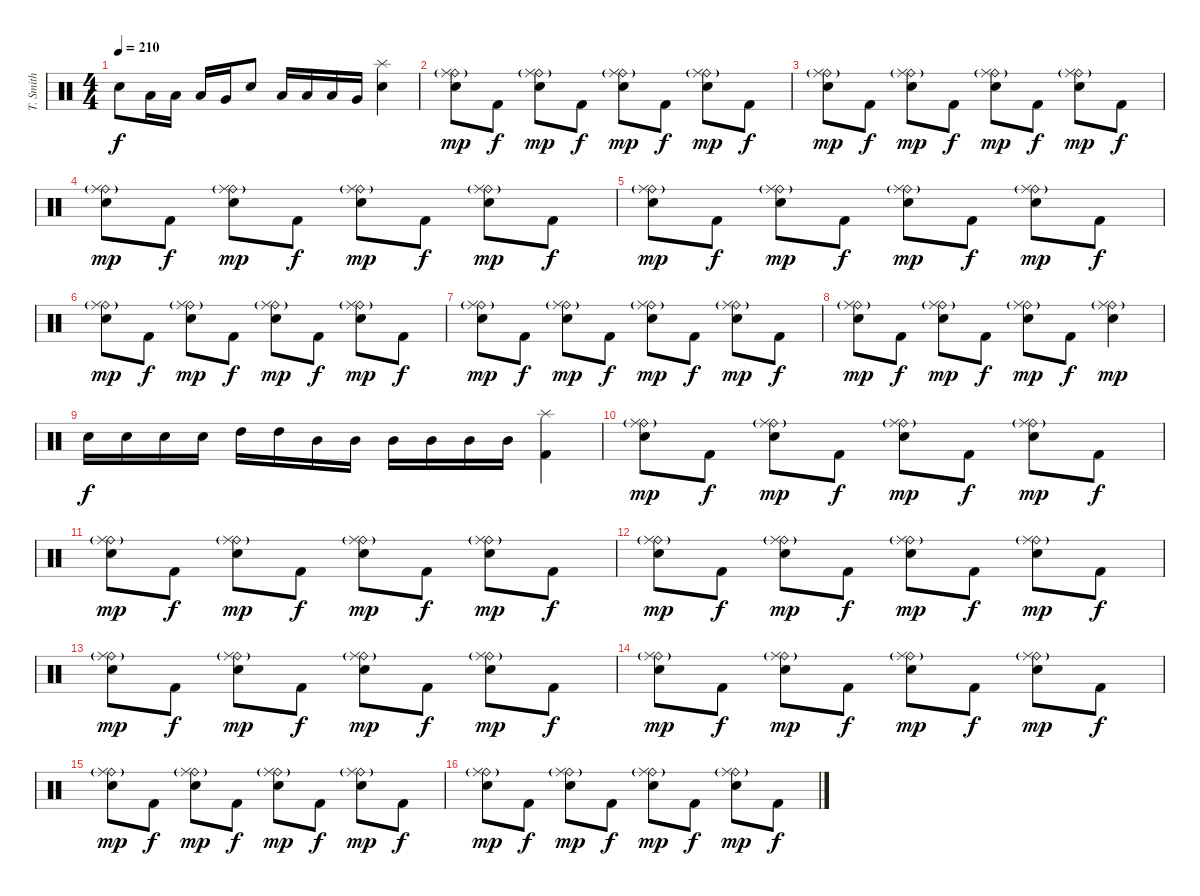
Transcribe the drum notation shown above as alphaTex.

\track ("T. Smith" "T. Smith") {instrument percussion}
\staff {score}
\articulation defaults
\ts (4 4)
\tempo 210
\clef neutral
\ks c "Electric Snare (hit)".8{dy f} "Low Tom (hit)".16 "Low Tom (hit)".16 "Low Tom (hit)".16 "Very Low Tom (hit)".16 "Electric Snare (hit)".8 "Low Tom (hit)".16 "Low Tom (hit)".16 "Low Tom (hit)".16 "Very Low Tom (hit)".16
("Splash (hit)" "Electric Snare (hit)").4 |
("Ride (bell)" "Ride (middle)"{g} "Electric Snare (hit)").8{dy mp} "Kick (hit) 2".8{dy f} ("Ride (bell)" "Ride (middle)"{g} "Electric Snare (hit)").8{dy mp} "Kick (hit) 2".8{dy f} ("Ride (bell)" "Ride (middle)"{g} "Electric Snare (hit)").8{dy mp} "Kick (hit) 2".8{dy f} ("Ride (bell)" "Ride (middle)"{g} "Electric Snare (hit)").8{dy mp} "Kick (hit) 2".8{dy f} |
("Ride (bell)" "Ride (middle)"{g} "Electric Snare (hit)").8{dy mp} "Kick (hit) 2".8{dy f} ("Ride (bell)" "Ride (middle)"{g} "Electric Snare (hit)").8{dy mp} "Kick (hit) 2".8{dy f} ("Ride (bell)" "Ride (middle)"{g} "Electric Snare (hit)").8{dy mp} "Kick (hit) 2".8{dy f} ("Ride (bell)" "Ride (middle)"{g} "Electric Snare (hit)").8{dy mp} "Kick (hit) 2".8{dy f} |
("Ride (bell)" "Ride (middle)"{g} "Electric Snare (hit)").8{dy mp} "Kick (hit) 2".8{dy f} ("Ride (bell)" "Ride (middle)"{g} "Electric Snare (hit)").8{dy mp} "Kick (hit) 2".8{dy f} ("Ride (bell)" "Ride (middle)"{g} "Electric Snare (hit)").8{dy mp} "Kick (hit) 2".8{dy f} ("Ride (bell)" "Ride (middle)"{g} "Electric Snare (hit)").8{dy mp} "Kick (hit) 2".8{dy f} |
("Ride (bell)" "Ride (middle)"{g} "Electric Snare (hit)").8{dy mp} "Kick (hit) 2".8{dy f} ("Ride (bell)" "Ride (middle)"{g} "Electric Snare (hit)").8{dy mp} "Kick (hit) 2".8{dy f} ("Ride (bell)" "Ride (middle)"{g} "Electric Snare (hit)").8{dy mp} "Kick (hit) 2".8{dy f} ("Ride (bell)" "Ride (middle)"{g} "Electric Snare (hit)").8{dy mp} "Kick (hit) 2".8{dy f} |
("Ride (bell)" "Ride (middle)"{g} "Electric Snare (hit)").8{dy mp} "Kick (hit) 2".8{dy f} ("Ride (bell)" "Ride (middle)"{g} "Electric Snare (hit)").8{dy mp} "Kick (hit) 2".8{dy f} ("Ride (bell)" "Ride (middle)"{g} "Electric Snare (hit)").8{dy mp} "Kick (hit) 2".8{dy f} ("Ride (bell)" "Ride (middle)"{g} "Electric Snare (hit)").8{dy mp} "Kick (hit) 2".8{dy f} |
("Ride (bell)" "Ride (middle)"{g} "Electric Snare (hit)").8{dy mp} "Kick (hit) 2".8{dy f} ("Ride (bell)" "Ride (middle)"{g} "Electric Snare (hit)").8{dy mp} "Kick (hit) 2".8{dy f} ("Ride (bell)" "Ride (middle)"{g} "Electric Snare (hit)").8{dy mp} "Kick (hit) 2".8{dy f} ("Ride (bell)" "Ride (middle)"{g} "Electric Snare (hit)").8{dy mp} "Kick (hit) 2".8{dy f} |
("Ride (bell)" "Ride (middle)"{g} "Electric Snare (hit)").8{dy mp} "Kick (hit) 2".8{dy f} ("Ride (bell)" "Ride (middle)"{g} "Electric Snare (hit)").8{dy mp} "Kick (hit) 2".8{dy f} ("Ride (bell)" "Ride (middle)"{g} "Electric Snare (hit)").8{dy mp} "Kick (hit) 2".8{dy f} ("Ride (bell)" "Ride (middle)"{g} "Electric Snare (hit)").4{dy mp} |
"Electric Snare (hit)".16{dy f} "Electric Snare (hit)".16 "Electric Snare (hit)".16 "Electric Snare (hit)".16 "High Tom (hit)".16 "High Tom (hit)".16 "Mid Tom (hit)".16 "Mid Tom (hit)".16 "Mid Tom (hit)".16 "Mid Tom (hit)".16 "Mid Tom (hit)".16 "Mid Tom (hit)".16 ("Splash (hit)" "Kick (hit) 2").4 |
("Ride (bell)" "Ride (middle)"{g} "Electric Snare (hit)").8{dy mp} "Kick (hit) 2".8{dy f} ("Ride (bell)" "Ride (middle)"{g} "Electric Snare (hit)").8{dy mp} "Kick (hit) 2".8{dy f} ("Ride (bell)" "Ride (middle)"{g} "Electric Snare (hit)").8{dy mp} "Kick (hit) 2".8{dy f} ("Ride (bell)" "Ride (middle)"{g} "Electric Snare (hit)").8{dy mp} "Kick (hit) 2".8{dy f} |
("Ride (bell)" "Ride (middle)"{g} "Electric Snare (hit)").8{dy mp} "Kick (hit) 2".8{dy f} ("Ride (bell)" "Ride (middle)"{g} "Electric Snare (hit)").8{dy mp} "Kick (hit) 2".8{dy f} ("Ride (bell)" "Ride (middle)"{g} "Electric Snare (hit)").8{dy mp} "Kick (hit) 2".8{dy f} ("Ride (bell)" "Ride (middle)"{g} "Electric Snare (hit)").8{dy mp} "Kick (hit) 2".8{dy f} |
("Ride (bell)" "Ride (middle)"{g} "Electric Snare (hit)").8{dy mp} "Kick (hit) 2".8{dy f} ("Ride (bell)" "Ride (middle)"{g} "Electric Snare (hit)").8{dy mp} "Kick (hit) 2".8{dy f} ("Ride (bell)" "Ride (middle)"{g} "Electric Snare (hit)").8{dy mp} "Kick (hit) 2".8{dy f} ("Ride (bell)" "Ride (middle)"{g} "Electric Snare (hit)").8{dy mp} "Kick (hit) 2".8{dy f} |
("Ride (bell)" "Ride (middle)"{g} "Electric Snare (hit)").8{dy mp} "Kick (hit) 2".8{dy f} ("Ride (bell)" "Ride (middle)"{g} "Electric Snare (hit)").8{dy mp} "Kick (hit) 2".8{dy f} ("Ride (bell)" "Ride (middle)"{g} "Electric Snare (hit)").8{dy mp} "Kick (hit) 2".8{dy f} ("Ride (bell)" "Ride (middle)"{g} "Electric Snare (hit)").8{dy mp} "Kick (hit) 2".8{dy f} |
("Ride (bell)" "Ride (middle)"{g} "Electric Snare (hit)").8{dy mp} "Kick (hit) 2".8{dy f} ("Ride (bell)" "Ride (middle)"{g} "Electric Snare (hit)").8{dy mp} "Kick (hit) 2".8{dy f} ("Ride (bell)" "Ride (middle)"{g} "Electric Snare (hit)").8{dy mp} "Kick (hit) 2".8{dy f} ("Ride (bell)" "Ride (middle)"{g} "Electric Snare (hit)").8{dy mp} "Kick (hit) 2".8{dy f} |
("Ride (bell)" "Ride (middle)"{g} "Electric Snare (hit)").8{dy mp} "Kick (hit) 2".8{dy f} ("Ride (bell)" "Ride (middle)"{g} "Electric Snare (hit)").8{dy mp} "Kick (hit) 2".8{dy f} ("Ride (bell)" "Ride (middle)"{g} "Electric Snare (hit)").8{dy mp} "Kick (hit) 2".8{dy f} ("Ride (bell)" "Ride (middle)"{g} "Electric Snare (hit)").8{dy mp} "Kick (hit) 2".8{dy f} |
("Ride (bell)" "Ride (middle)"{g} "Electric Snare (hit)").8{dy mp} "Kick (hit) 2".8{dy f} ("Ride (bell)" "Ride (middle)"{g} "Electric Snare (hit)").8{dy mp} "Kick (hit) 2".8{dy f} ("Ride (bell)" "Ride (middle)"{g} "Electric Snare (hit)").8{dy mp} "Kick (hit) 2".8{dy f} ("Ride (bell)" "Ride (middle)"{g} "Electric Snare (hit)").8{dy mp} "Kick (hit) 2".8{dy f}
